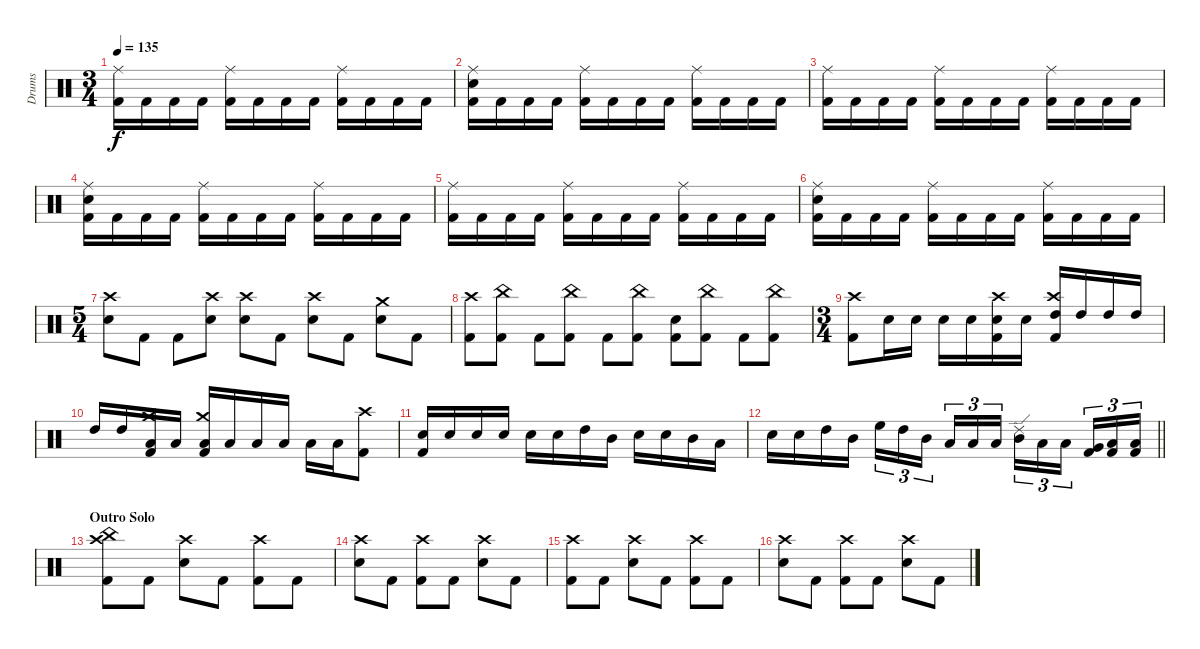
\track ("Drums" "Drums") {instrument percussion}
\staff {score}
\articulation defaults
\ts (3 4)
\tempo 135
\clef neutral
\ks c
("Ride (middle)" "Kick (hit) 2").16{dy f} "Kick (hit) 2".16 "Kick (hit) 2".16 "Kick (hit) 2".16 ("Ride (middle)" "Kick (hit) 2").16 "Kick (hit) 2".16 "Kick (hit) 2".16 "Kick (hit) 2".16 ("Ride (middle)" "Kick (hit) 2").16 "Kick (hit) 2".16 "Kick (hit) 2".16 "Kick (hit) 2".16 |
("Ride (middle)" "Snare (hit) 2" "Kick (hit) 2").16 "Kick (hit) 2".16 "Kick (hit) 2".16 "Kick (hit) 2".16 ("Ride (middle)" "Kick (hit) 2").16 "Kick (hit) 2".16 "Kick (hit) 2".16 "Kick (hit) 2".16 ("Ride (middle)" "Kick (hit) 2").16 "Kick (hit) 2".16 "Kick (hit) 2".16 "Kick (hit) 2".16 |
("Ride (middle)" "Kick (hit) 2").16 "Kick (hit) 2".16 "Kick (hit) 2".16 "Kick (hit) 2".16 ("Ride (middle)" "Kick (hit) 2").16 "Kick (hit) 2".16 "Kick (hit) 2".16 "Kick (hit) 2".16 ("Ride (middle)" "Kick (hit) 2").16 "Kick (hit) 2".16 "Kick (hit) 2".16 "Kick (hit) 2".16 |
("Ride (middle)" "Snare (hit) 2" "Kick (hit) 2").16 "Kick (hit) 2".16 "Kick (hit) 2".16 "Kick (hit) 2".16 ("Ride (middle)" "Kick (hit) 2").16 "Kick (hit) 2".16 "Kick (hit) 2".16 "Kick (hit) 2".16 ("Ride (middle)" "Kick (hit) 2").16 "Kick (hit) 2".16 "Kick (hit) 2".16 "Kick (hit) 2".16 |
("Ride (middle)" "Kick (hit) 2").16 "Kick (hit) 2".16 "Kick (hit) 2".16 "Kick (hit) 2".16 ("Ride (middle)" "Kick (hit) 2").16 "Kick (hit) 2".16 "Kick (hit) 2".16 "Kick (hit) 2".16 ("Ride (middle)" "Kick (hit) 2").16 "Kick (hit) 2".16 "Kick (hit) 2".16 "Kick (hit) 2".16 |
("Ride (middle)" "Snare (hit) 2" "Kick (hit) 2").16 "Kick (hit) 2".16 "Kick (hit) 2".16 "Kick (hit) 2".16 ("Ride (middle)" "Kick (hit) 2").16 "Kick (hit) 2".16 "Kick (hit) 2".16 "Kick (hit) 2".16 ("Ride (middle)" "Kick (hit) 2").16 "Kick (hit) 2".16 "Kick (hit) 2".16 "Kick (hit) 2".16 |
\ts (5 4)
("Crash high (hit)" "Snare (hit) 2").8 "Kick (hit) 2".8 "Kick (hit) 2".8 ("Crash high (hit)" "Snare (hit) 2").8 ("Crash high (hit)" "Snare (hit) 2").8 "Kick (hit) 2".8 ("Crash high (hit)" "Snare (hit) 2").8 "Kick (hit) 2".8 ("Crash medium (hit)" "Snare (hit) 2").8 "Kick (hit) 2".8 |
("Crash high (hit)" "Kick (hit) 2").8 ("China (hit)" "Kick (hit) 2").8 "Kick (hit) 2".8 ("China (hit)" "Kick (hit) 2").8 "Kick (hit) 2".8 ("China (hit)" "Kick (hit) 2").8 ("Snare (hit) 2" "Kick (hit) 2").8 ("China (hit)" "Kick (hit) 2").8 "Kick (hit) 2".8 ("China (hit)" "Kick (hit) 2").8 |
\ts (3 4)
("Crash high (hit)" "Kick (hit) 2").8 "Snare (hit) 2".16 "Snare (hit) 2".16 "Snare (hit) 2".16 "Snare (hit) 2".16 ("Crash high (hit)" "Snare (hit) 2" "Kick (hit) 2").16 "Snare (hit) 2".16 ("Crash high (hit)" "High Tom (hit)" "Kick (hit) 2").16 "High Tom (hit)".16 "High Tom (hit)".16 "High Tom (hit)".16 |
"High Tom (hit)".16 "High Tom (hit)".16 ("Crash medium (hit)" "Low Tom (hit)" "Kick (hit) 2").16 "Low Tom (hit)".16 ("Crash medium (hit)" "Low Tom (hit)" "Kick (hit) 2").16 "Low Tom (hit)".16 "Low Tom (hit)".16 "Low Tom (hit)".16 "Low Tom (hit)".16 "Low Tom (hit)".16 ("Crash high (hit)" "Kick (hit) 2").8 |
("Snare (hit) 2" "Kick (hit) 2").16 "Snare (hit) 2".16 "Snare (hit) 2".16 "Snare (hit) 2".16 "Snare (hit) 2".16 "Snare (hit) 2".16 "High Tom (hit)".16 "Mid Tom (hit)".16 "Snare (hit) 2".16 "Snare (hit) 2".16 "Mid Tom (hit)".16 "Low Tom (hit)".16 |
\barLineRight lightlight "Snare (hit) 2".16 "Snare (hit) 2".16 "High Tom (hit)".16 "Mid Tom (hit)".16 "High Floor Tom (hit)".16{tu (3 2)} "High Tom (hit)".16{tu (3 2)} "Mid Tom (hit)".16{tu (3 2) beam splitsecondary} "Low Tom (hit)".16{tu (3 2)} "Low Tom (hit)".16{tu (3 2)} "Low Tom (hit)".16{tu (3 2)}
("Ride (edge) 2" "Mid Tom (hit)").16{tu (3 2)} "Low Tom (hit)".16{tu (3 2)} "Low Tom (hit)".16{tu (3 2) beam splitsecondary} ("Very Low Tom (hit)" "Kick (hit) 2").16{tu (3 2)} ("Low Floor Tom (hit)" "Kick (hit) 2").16{tu (3 2)} ("Low Floor Tom (hit)" "Kick (hit) 2").16{tu (3 2)} |
\section ("" "Outro Solo")
("Crash high (hit)" "China (hit)" "Kick (hit) 2").8 "Kick (hit) 2".8 ("Crash high (hit)" "Snare (hit) 2").8 "Kick (hit) 2".8 ("Crash high (hit)" "Kick (hit) 2").8 "Kick (hit) 2".8 |
("Crash high (hit)" "Snare (hit) 2").8 "Kick (hit) 2".8 ("Crash high (hit)" "Kick (hit) 2").8 "Kick (hit) 2".8 ("Crash high (hit)" "Snare (hit) 2").8 "Kick (hit) 2".8 |
("Crash high (hit)" "Kick (hit) 2").8 "Kick (hit) 2".8 ("Crash high (hit)" "Snare (hit) 2").8 "Kick (hit) 2".8 ("Crash high (hit)" "Kick (hit) 2").8 "Kick (hit) 2".8 |
("Crash high (hit)" "Snare (hit) 2").8 "Kick (hit) 2".8 ("Crash high (hit)" "Kick (hit) 2").8 "Kick (hit) 2".8 ("Crash high (hit)" "Snare (hit) 2").8 "Kick (hit) 2".8
